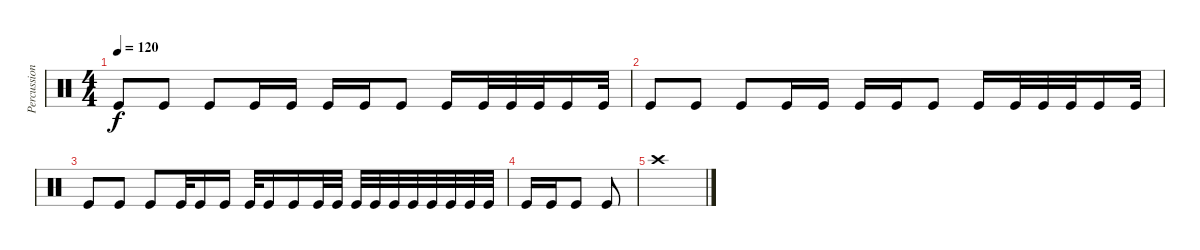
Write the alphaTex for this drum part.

\track ("Percussion" "Percussion") {instrument percussion}
\staff {score}
\articulation defaults
\ts (4 4)
\tempo 120
\clef neutral
\ks c "Kick (hit)".8{dy f} "Kick (hit)".8 "Kick (hit)".8 "Kick (hit)".16 "Kick (hit)".16 "Kick (hit)".16 "Kick (hit)".16 "Kick (hit)".8 "Kick (hit)".16 "Kick (hit)".32 "Kick (hit)".32 "Kick (hit)".32 "Kick (hit)".16 "Kick (hit)".32
|
"Kick (hit)".8 "Kick (hit)".8 "Kick (hit)".8 "Kick (hit)".16 "Kick (hit)".16 "Kick (hit)".16 "Kick (hit)".16 "Kick (hit)".8 "Kick (hit)".16 "Kick (hit)".32 "Kick (hit)".32 "Kick (hit)".32 "Kick (hit)".16 "Kick (hit)".32 |
"Kick (hit)".8 "Kick (hit)".8 "Kick (hit)".8 "Kick (hit)".32 "Kick (hit)".16 "Kick (hit)".16 "Kick (hit)".32 "Kick (hit)".16 "Kick (hit)".16 "Kick (hit)".32 "Kick (hit)".32 "Kick (hit)".32 "Kick (hit)".32 "Kick (hit)".32 "Kick (hit)".32 "Kick (hit)".32 "Kick (hit)".32 "Kick (hit)".32 "Kick (hit)".32 |
"Kick (hit)".16 "Kick (hit)".16 "Kick (hit)".8 "Kick (hit)".8 |
"Crash high (hit)".1
